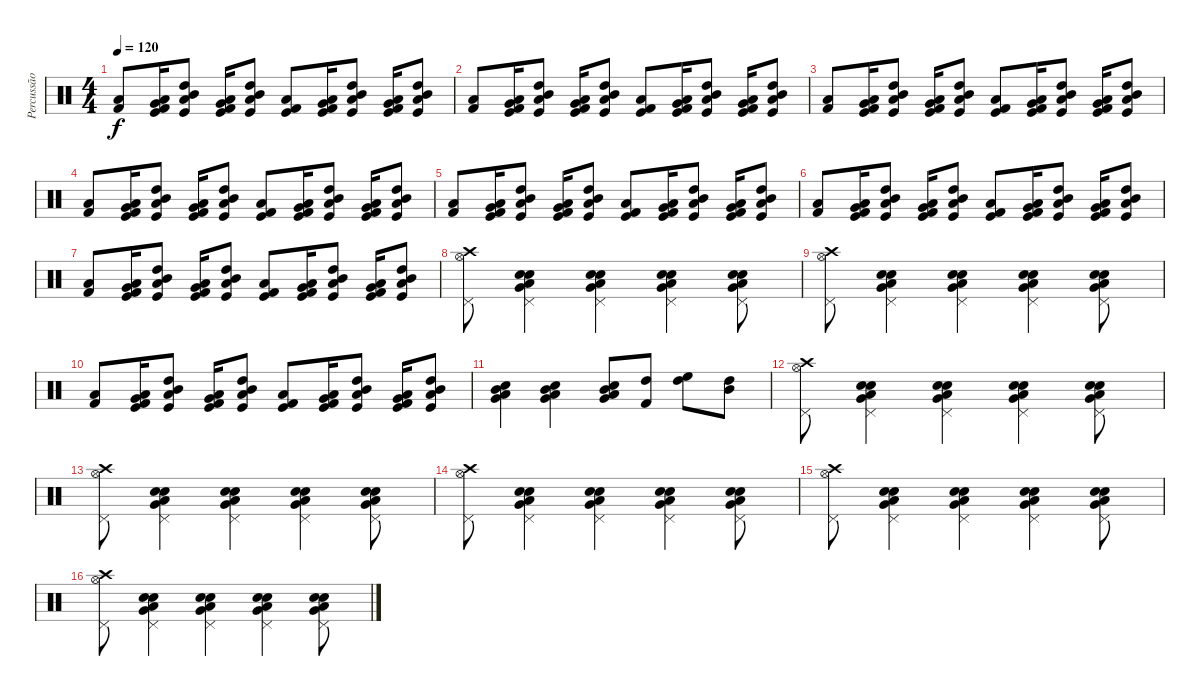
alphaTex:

\track ("Percussão" "Percussão") {instrument percussion}
\staff {score}
\articulation defaults
\ts (4 4)
\tempo 120
\clef neutral
\ks c
("Kick (hit) 2" "Low Floor Tom (hit)").8{dy f} ("Low Tom (hit)" "Kick (hit) 2" "Very Low Tom (hit)" "Kick (hit)").16 ("Low Tom (hit)" "Mid Tom (hit)" "Kick (hit)" "High Tom (hit)").8 ("Low Tom (hit)" "Kick (hit) 2" "Very Low Tom (hit)" "Kick (hit)").16 ("Low Tom (hit)" "Mid Tom (hit)" "Kick (hit)" "High Tom (hit)").8 ("Kick (hit) 2" "Kick (hit)" "Low Floor Tom (hit)").8 ("Low Tom (hit)" "Kick (hit) 2" "Very Low Tom (hit)" "Kick (hit)").16 ("Low Tom (hit)" "Mid Tom (hit)" "Kick (hit)" "High Tom (hit)").8 ("Low Tom (hit)" "Kick (hit) 2" "Very Low Tom (hit)" "Kick (hit)").16 ("Low Tom (hit)" "Mid Tom (hit)" "Kick (hit)" "High Tom (hit)").8 |
("Kick (hit) 2" "Low Floor Tom (hit)").8 ("Low Tom (hit)" "Kick (hit) 2" "Very Low Tom (hit)" "Kick (hit)").16 ("Low Tom (hit)" "Mid Tom (hit)" "Kick (hit)" "High Tom (hit)").8 ("Low Tom (hit)" "Kick (hit) 2" "Very Low Tom (hit)" "Kick (hit)").16 ("Low Tom (hit)" "Mid Tom (hit)" "Kick (hit)" "High Tom (hit)").8 ("Kick (hit) 2" "Kick (hit)" "Low Floor Tom (hit)").8 ("Low Tom (hit)" "Kick (hit) 2" "Very Low Tom (hit)" "Kick (hit)").16 ("Low Tom (hit)" "Mid Tom (hit)" "Kick (hit)" "High Tom (hit)").8 ("Low Tom (hit)" "Kick (hit) 2" "Very Low Tom (hit)" "Kick (hit)").16 ("Low Tom (hit)" "Mid Tom (hit)" "Kick (hit)" "High Tom (hit)").8 |
("Kick (hit) 2" "Low Floor Tom (hit)").8 ("Low Tom (hit)" "Kick (hit) 2" "Very Low Tom (hit)" "Kick (hit)").16 ("Low Tom (hit)" "Mid Tom (hit)" "Kick (hit)" "High Tom (hit)").8 ("Low Tom (hit)" "Kick (hit) 2" "Very Low Tom (hit)" "Kick (hit)").16 ("Low Tom (hit)" "Mid Tom (hit)" "Kick (hit)" "High Tom (hit)").8 ("Kick (hit) 2" "Kick (hit)" "Low Floor Tom (hit)").8 ("Low Tom (hit)" "Kick (hit) 2" "Very Low Tom (hit)" "Kick (hit)").16 ("Low Tom (hit)" "Mid Tom (hit)" "Kick (hit)" "High Tom (hit)").8 ("Low Tom (hit)" "Kick (hit) 2" "Very Low Tom (hit)" "Kick (hit)").16 ("Low Tom (hit)" "Mid Tom (hit)" "Kick (hit)" "High Tom (hit)").8 |
("Kick (hit) 2" "Low Floor Tom (hit)").8 ("Low Tom (hit)" "Kick (hit) 2" "Very Low Tom (hit)" "Kick (hit)").16 ("Low Tom (hit)" "Mid Tom (hit)" "Kick (hit)" "High Tom (hit)").8 ("Low Tom (hit)" "Kick (hit) 2" "Very Low Tom (hit)" "Kick (hit)").16 ("Low Tom (hit)" "Mid Tom (hit)" "Kick (hit)" "High Tom (hit)").8 ("Kick (hit) 2" "Kick (hit)" "Low Floor Tom (hit)").8 ("Low Tom (hit)" "Kick (hit) 2" "Very Low Tom (hit)" "Kick (hit)").16 ("Low Tom (hit)" "Mid Tom (hit)" "Kick (hit)" "High Tom (hit)").8 ("Low Tom (hit)" "Kick (hit) 2" "Very Low Tom (hit)" "Kick (hit)").16 ("Low Tom (hit)" "Mid Tom (hit)" "Kick (hit)" "High Tom (hit)").8 |
("Kick (hit) 2" "Low Floor Tom (hit)").8 ("Low Tom (hit)" "Kick (hit) 2" "Very Low Tom (hit)" "Kick (hit)").16 ("Low Tom (hit)" "Mid Tom (hit)" "Kick (hit)" "High Tom (hit)").8 ("Low Tom (hit)" "Kick (hit) 2" "Very Low Tom (hit)" "Kick (hit)").16 ("Low Tom (hit)" "Mid Tom (hit)" "Kick (hit)" "High Tom (hit)").8 ("Kick (hit) 2" "Kick (hit)" "Low Floor Tom (hit)").8 ("Low Tom (hit)" "Kick (hit) 2" "Very Low Tom (hit)" "Kick (hit)").16 ("Low Tom (hit)" "Mid Tom (hit)" "Kick (hit)" "High Tom (hit)").8 ("Low Tom (hit)" "Kick (hit) 2" "Very Low Tom (hit)" "Kick (hit)").16 ("Low Tom (hit)" "Mid Tom (hit)" "Kick (hit)" "High Tom (hit)").8 |
("Kick (hit) 2" "Low Floor Tom (hit)").8 ("Low Tom (hit)" "Kick (hit) 2" "Very Low Tom (hit)" "Kick (hit)").16 ("Low Tom (hit)" "Mid Tom (hit)" "Kick (hit)" "High Tom (hit)").8 ("Low Tom (hit)" "Kick (hit) 2" "Very Low Tom (hit)" "Kick (hit)").16 ("Low Tom (hit)" "Mid Tom (hit)" "Kick (hit)" "High Tom (hit)").8 ("Kick (hit) 2" "Kick (hit)" "Low Floor Tom (hit)").8 ("Low Tom (hit)" "Kick (hit) 2" "Very Low Tom (hit)" "Kick (hit)").16 ("Low Tom (hit)" "Mid Tom (hit)" "Kick (hit)" "High Tom (hit)").8 ("Low Tom (hit)" "Kick (hit) 2" "Very Low Tom (hit)" "Kick (hit)").16 ("Low Tom (hit)" "Mid Tom (hit)" "Kick (hit)" "High Tom (hit)").8 |
("Kick (hit) 2" "Low Floor Tom (hit)").8 ("Low Tom (hit)" "Kick (hit) 2" "Very Low Tom (hit)" "Kick (hit)").16 ("Low Tom (hit)" "Mid Tom (hit)" "Kick (hit)" "High Tom (hit)").8 ("Low Tom (hit)" "Kick (hit) 2" "Very Low Tom (hit)" "Kick (hit)").16 ("Low Tom (hit)" "Mid Tom (hit)" "Kick (hit)" "High Tom (hit)").8 ("Kick (hit) 2" "Kick (hit)" "Low Floor Tom (hit)").8 ("Low Tom (hit)" "Kick (hit) 2" "Very Low Tom (hit)" "Kick (hit)").16 ("Low Tom (hit)" "Mid Tom (hit)" "Kick (hit)" "High Tom (hit)").8 ("Low Tom (hit)" "Kick (hit) 2" "Very Low Tom (hit)" "Kick (hit)").16 ("Low Tom (hit)" "Mid Tom (hit)" "Kick (hit)" "High Tom (hit)").8 |
("Hi-Hat (open)" "Crash high (hit)" "Pedal Hi-Hat (hit)").8 ("Pedal Hi-Hat (hit)" "Snare (hit) 2" "Electric Snare (hit)" "Low Tom (hit)" "Very Low Tom (hit)").4 ("Pedal Hi-Hat (hit)" "Snare (hit) 2" "Electric Snare (hit)" "Low Tom (hit)" "Very Low Tom (hit)").4 ("Pedal Hi-Hat (hit)" "Snare (hit) 2" "Electric Snare (hit)" "Low Tom (hit)" "Very Low Tom (hit)").4 ("Pedal Hi-Hat (hit)" "Snare (hit) 2" "Electric Snare (hit)" "Low Tom (hit)" "Very Low Tom (hit)").8 |
("Hi-Hat (open)" "Crash high (hit)" "Pedal Hi-Hat (hit)").8 ("Pedal Hi-Hat (hit)" "Snare (hit) 2" "Electric Snare (hit)" "Low Tom (hit)" "Very Low Tom (hit)").4 ("Pedal Hi-Hat (hit)" "Snare (hit) 2" "Electric Snare (hit)" "Low Tom (hit)" "Very Low Tom (hit)").4 ("Pedal Hi-Hat (hit)" "Snare (hit) 2" "Electric Snare (hit)" "Low Tom (hit)" "Very Low Tom (hit)").4 ("Pedal Hi-Hat (hit)" "Snare (hit) 2" "Electric Snare (hit)" "Low Tom (hit)" "Very Low Tom (hit)").8 |
("Kick (hit) 2" "Low Floor Tom (hit)").8 ("Low Tom (hit)" "Kick (hit) 2" "Very Low Tom (hit)" "Kick (hit)").16 ("Low Tom (hit)" "Mid Tom (hit)" "Kick (hit)" "High Tom (hit)").8 ("Low Tom (hit)" "Kick (hit) 2" "Very Low Tom (hit)" "Kick (hit)").16 ("Low Tom (hit)" "Mid Tom (hit)" "Kick (hit)" "High Tom (hit)").8 ("Kick (hit) 2" "Kick (hit)" "Low Floor Tom (hit)").8 ("Low Tom (hit)" "Kick (hit) 2" "Very Low Tom (hit)" "Kick (hit)").16 ("Low Tom (hit)" "Mid Tom (hit)" "Kick (hit)" "High Tom (hit)").8 ("Low Tom (hit)" "Kick (hit) 2" "Very Low Tom (hit)" "Kick (hit)").16 ("Low Tom (hit)" "Mid Tom (hit)" "Kick (hit)" "High Tom (hit)").8 |
("Low Tom (hit)" "Snare (hit) 2" "Mid Tom (hit)" "Very Low Tom (hit)").4 ("Low Tom (hit)" "Snare (hit) 2" "Mid Tom (hit)" "Very Low Tom (hit)").4 ("Low Tom (hit)" "Snare (hit) 2" "Mid Tom (hit)" "Very Low Tom (hit)").8 ("High Tom (hit)" "Kick (hit) 2").8 ("High Tom (hit)" "High Floor Tom (hit)").8 ("High Tom (hit)" "Mid Tom (hit)").8 |
("Hi-Hat (open)" "Crash high (hit)" "Pedal Hi-Hat (hit)").8 ("Pedal Hi-Hat (hit)" "Snare (hit) 2" "Electric Snare (hit)" "Low Tom (hit)" "Very Low Tom (hit)").4 ("Pedal Hi-Hat (hit)" "Snare (hit) 2" "Electric Snare (hit)" "Low Tom (hit)" "Very Low Tom (hit)").4 ("Pedal Hi-Hat (hit)" "Snare (hit) 2" "Electric Snare (hit)" "Low Tom (hit)" "Very Low Tom (hit)").4 ("Pedal Hi-Hat (hit)" "Snare (hit) 2" "Electric Snare (hit)" "Low Tom (hit)" "Very Low Tom (hit)").8 |
("Hi-Hat (open)" "Crash high (hit)" "Pedal Hi-Hat (hit)").8 ("Pedal Hi-Hat (hit)" "Snare (hit) 2" "Electric Snare (hit)" "Low Tom (hit)" "Very Low Tom (hit)").4 ("Pedal Hi-Hat (hit)" "Snare (hit) 2" "Electric Snare (hit)" "Low Tom (hit)" "Very Low Tom (hit)").4 ("Pedal Hi-Hat (hit)" "Snare (hit) 2" "Electric Snare (hit)" "Low Tom (hit)" "Very Low Tom (hit)").4 ("Pedal Hi-Hat (hit)" "Snare (hit) 2" "Electric Snare (hit)" "Low Tom (hit)" "Very Low Tom (hit)").8 |
("Hi-Hat (open)" "Crash high (hit)" "Pedal Hi-Hat (hit)").8 ("Pedal Hi-Hat (hit)" "Snare (hit) 2" "Electric Snare (hit)" "Low Tom (hit)" "Very Low Tom (hit)").4 ("Pedal Hi-Hat (hit)" "Snare (hit) 2" "Electric Snare (hit)" "Low Tom (hit)" "Very Low Tom (hit)").4 ("Pedal Hi-Hat (hit)" "Snare (hit) 2" "Electric Snare (hit)" "Low Tom (hit)" "Very Low Tom (hit)").4 ("Pedal Hi-Hat (hit)" "Snare (hit) 2" "Electric Snare (hit)" "Low Tom (hit)" "Very Low Tom (hit)").8 |
("Hi-Hat (open)" "Crash high (hit)" "Pedal Hi-Hat (hit)").8 ("Pedal Hi-Hat (hit)" "Snare (hit) 2" "Electric Snare (hit)" "Low Tom (hit)" "Very Low Tom (hit)").4 ("Pedal Hi-Hat (hit)" "Snare (hit) 2" "Electric Snare (hit)" "Low Tom (hit)" "Very Low Tom (hit)").4 ("Pedal Hi-Hat (hit)" "Snare (hit) 2" "Electric Snare (hit)" "Low Tom (hit)" "Very Low Tom (hit)").4 ("Pedal Hi-Hat (hit)" "Snare (hit) 2" "Electric Snare (hit)" "Low Tom (hit)" "Very Low Tom (hit)").8 |
("Hi-Hat (open)" "Crash high (hit)" "Pedal Hi-Hat (hit)").8 ("Pedal Hi-Hat (hit)" "Snare (hit) 2" "Electric Snare (hit)" "Low Tom (hit)" "Very Low Tom (hit)").4 ("Pedal Hi-Hat (hit)" "Snare (hit) 2" "Electric Snare (hit)" "Low Tom (hit)" "Very Low Tom (hit)").4 ("Pedal Hi-Hat (hit)" "Snare (hit) 2" "Electric Snare (hit)" "Low Tom (hit)" "Very Low Tom (hit)").4 ("Pedal Hi-Hat (hit)" "Snare (hit) 2" "Electric Snare (hit)" "Low Tom (hit)" "Very Low Tom (hit)").8
